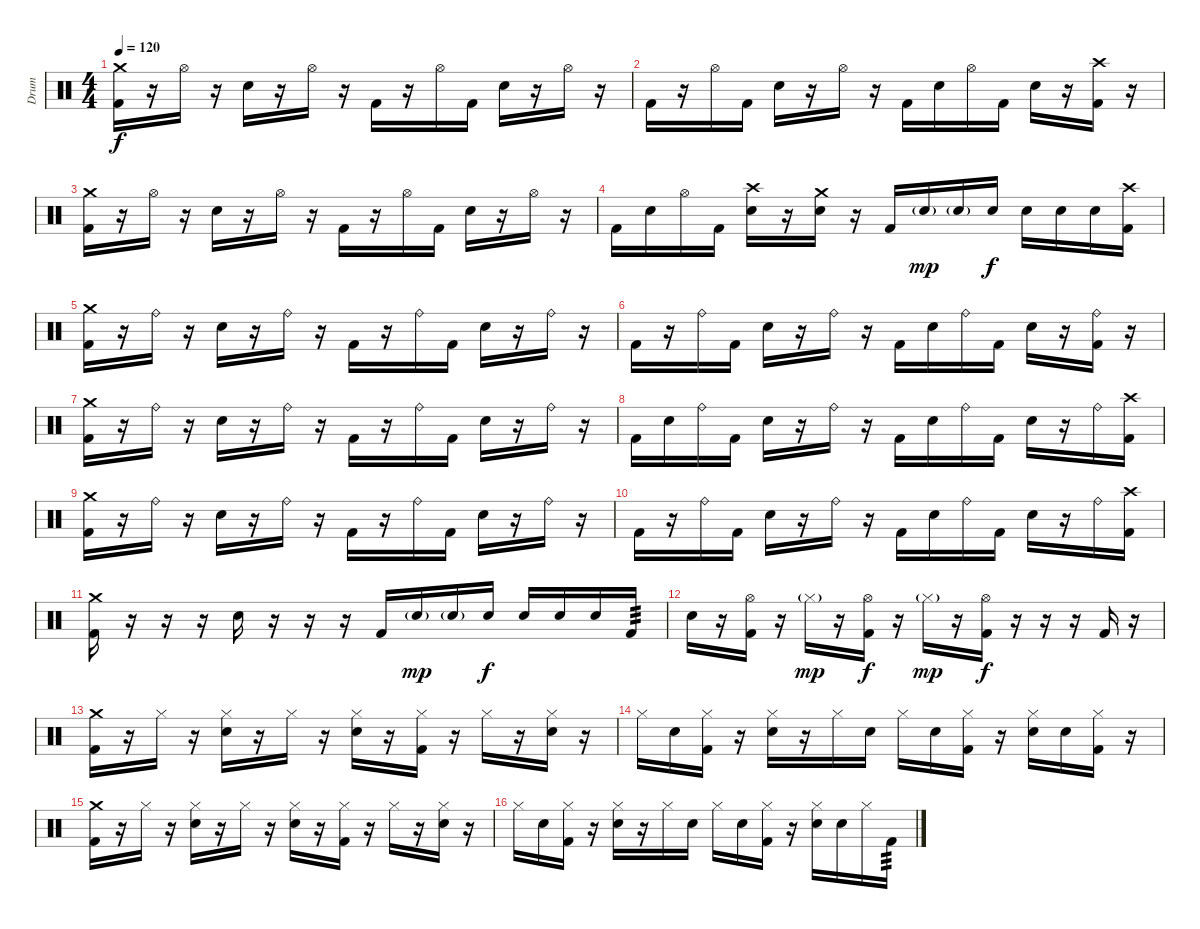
\track ("Drum" "Drum") {instrument percussion}
\staff {score}
\articulation defaults
\ts (4 4)
\tempo 120
\clef neutral
\ks c
("Crash medium (hit)" "Kick (hit) 2").16{dy f} r.16 "Hi-Hat (open)".16 r.16 "Snare (hit) 2".16 r.16 "Hi-Hat (open)".16 r.16 "Kick (hit) 2".16 r.16 "Hi-Hat (open)".16 "Kick (hit) 2".16 "Snare (hit) 2".16 r.16 "Hi-Hat (open)".16 r.16 |
"Kick (hit) 2".16 r.16 "Hi-Hat (open)".16 "Kick (hit) 2".16 "Snare (hit) 2".16 r.16 "Hi-Hat (open)".16 r.16 "Kick (hit) 2".16 "Snare (hit) 2".16 "Hi-Hat (open)".16 "Kick (hit) 2".16 "Snare (hit) 2".16 r.16 ("Crash high (hit)" "Kick (hit) 2").16 r.16 |
("Crash medium (hit)" "Kick (hit) 2").16 r.16 "Hi-Hat (open)".16 r.16 "Snare (hit) 2".16 r.16 "Hi-Hat (open)".16 r.16 "Kick (hit) 2".16 r.16 "Hi-Hat (open)".16 "Kick (hit) 2".16 "Snare (hit) 2".16 r.16 "Hi-Hat (open)".16 r.16 |
"Kick (hit) 2".16 "Snare (hit) 2".16 "Hi-Hat (open)".16 "Kick (hit) 2".16 ("Crash high (hit)" "Snare (hit) 2").16 r.16 ("Crash medium (hit)" "Snare (hit) 2").16 r.16 "Kick (hit) 2".16 "Snare (hit) 2"{g}.16{dy mp} "Snare (hit) 2"{g}.16 "Snare (hit) 2".16{dy f} "Snare (hit) 2".16 "Snare (hit) 2".16 "Snare (hit) 2".16 ("Crash high (hit)" "Kick (hit) 2").16 |
("Crash medium (hit)" "Kick (hit) 2").16 r.16 "Ride (bell)".16 r.16 "Snare (hit) 2".16 r.16 "Ride (bell)".16 r.16 "Kick (hit) 2".16 r.16 "Ride (bell)".16 "Kick (hit) 2".16 "Snare (hit) 2".16 r.16 "Ride (bell)".16 r.16 |
"Kick (hit) 2".16 r.16 "Ride (bell)".16 "Kick (hit) 2".16 "Snare (hit) 2".16 r.16 "Ride (bell)".16 r.16 "Kick (hit) 2".16 "Snare (hit) 2".16 "Ride (bell)".16 "Kick (hit) 2".16 "Snare (hit) 2".16 r.16 ("Ride (bell)" "Kick (hit) 2").16 r.16 |
("Crash medium (hit)" "Kick (hit) 2").16 r.16 "Ride (bell)".16 r.16 "Snare (hit) 2".16 r.16 "Ride (bell)".16 r.16 "Kick (hit) 2".16 r.16 "Ride (bell)".16 "Kick (hit) 2".16 "Snare (hit) 2".16 r.16 "Ride (bell)".16 r.16 |
"Kick (hit) 2".16 "Snare (hit) 2".16 "Ride (bell)".16 "Kick (hit) 2".16 "Snare (hit) 2".16 r.16 "Ride (bell)".16 r.16 "Kick (hit) 2".16 "Snare (hit) 2".16 "Ride (bell)".16 "Kick (hit) 2".16 "Snare (hit) 2".16 r.16 "Ride (bell)".16 ("Crash high (hit)" "Kick (hit) 2").16 |
("Crash medium (hit)" "Kick (hit) 2").16 r.16 "Ride (bell)".16 r.16 "Snare (hit) 2".16 r.16 "Ride (bell)".16 r.16 "Kick (hit) 2".16 r.16 "Ride (bell)".16 "Kick (hit) 2".16 "Snare (hit) 2".16 r.16 "Ride (bell)".16 r.16 |
"Kick (hit) 2".16 r.16 "Ride (bell)".16 "Kick (hit) 2".16 "Snare (hit) 2".16 r.16 "Ride (bell)".16 r.16 "Kick (hit) 2".16 "Snare (hit) 2".16 "Ride (bell)".16 "Kick (hit) 2".16 "Snare (hit) 2".16 r.16 "Ride (bell)".16 ("Crash high (hit)" "Kick (hit) 2").16 |
("Crash medium (hit)" "Kick (hit) 2").16 r.16 r.16 r.16 "Snare (hit) 2".16 r.16 r.16 r.16 "Kick (hit) 2".16 "Snare (hit) 2"{g}.16{dy mp} "Snare (hit) 2"{g}.16 "Snare (hit) 2".16{dy f} "Snare (hit) 2".16 "Snare (hit) 2".16 "Snare (hit) 2".16 "Kick (hit) 2".16{tp 3} |
"Snare (hit) 2".16 r.16 ("Hi-Hat (open)" "Kick (hit) 2").16 r.16 "Hi-Hat (closed)"{g}.16{dy mp} r.16 ("Hi-Hat (open)" "Kick (hit) 2").16{dy f} r.16 "Hi-Hat (closed)"{g}.16{dy mp} r.16 ("Hi-Hat (open)" "Kick (hit) 2").16{dy f} r.16 r.16 r.16 "Kick (hit) 2".16 r.16 |
("Crash medium (hit)" "Kick (hit) 2").16 r.16 "Hi-Hat (closed)".16 r.16 ("Hi-Hat (closed)" "Snare (hit) 2").16 r.16 "Hi-Hat (closed)".16 r.16 ("Hi-Hat (closed)" "Snare (hit) 2").16 r.16 ("Hi-Hat (closed)" "Kick (hit) 2").16 r.16 "Hi-Hat (closed)".16 r.16 ("Hi-Hat (closed)" "Snare (hit) 2").16 r.16 |
"Hi-Hat (closed)".16 "Snare (hit) 2".16 ("Hi-Hat (closed)" "Kick (hit) 2").16 r.16 ("Hi-Hat (closed)" "Snare (hit) 2").16 r.16 "Hi-Hat (closed)".16 "Snare (hit) 2".16 "Hi-Hat (closed)".16 "Snare (hit) 2".16 ("Hi-Hat (closed)" "Kick (hit) 2").16 r.16 ("Hi-Hat (closed)" "Snare (hit) 2").16 "Snare (hit) 2".16 ("Hi-Hat (closed)" "Kick (hit) 2").16 r.16 |
("Crash medium (hit)" "Kick (hit) 2").16 r.16 "Hi-Hat (closed)".16 r.16 ("Hi-Hat (closed)" "Snare (hit) 2").16 r.16 "Hi-Hat (closed)".16 r.16 ("Hi-Hat (closed)" "Snare (hit) 2").16 r.16 ("Hi-Hat (closed)" "Kick (hit) 2").16 r.16 "Hi-Hat (closed)".16 r.16 ("Hi-Hat (closed)" "Snare (hit) 2").16 r.16 |
"Hi-Hat (closed)".16 "Snare (hit) 2".16 ("Hi-Hat (closed)" "Kick (hit) 2").16 r.16 ("Hi-Hat (closed)" "Snare (hit) 2").16 r.16 "Hi-Hat (closed)".16 "Snare (hit) 2".16 "Hi-Hat (closed)".16 "Snare (hit) 2".16 ("Hi-Hat (closed)" "Kick (hit) 2").16 r.16 ("Hi-Hat (closed)" "Snare (hit) 2").16 "Snare (hit) 2".16 "Hi-Hat (closed)".16 "Kick (hit) 2".16{tp 3}
